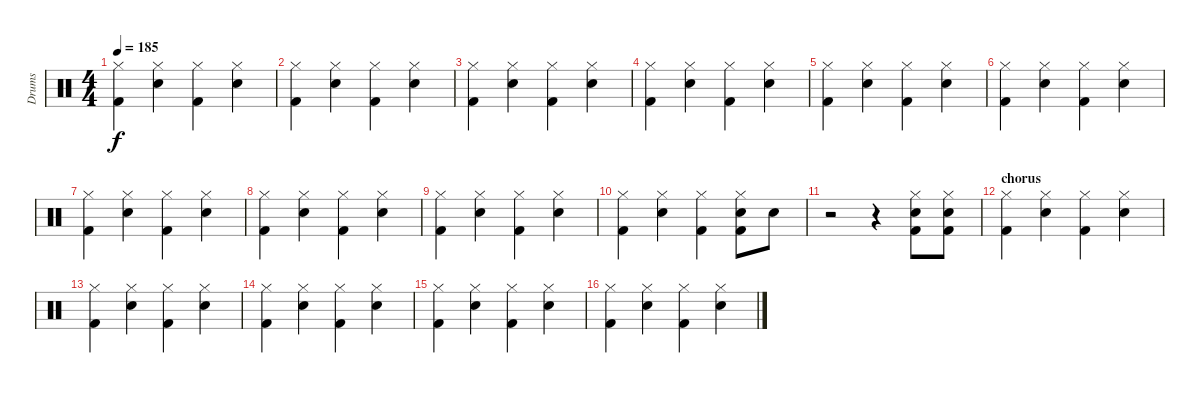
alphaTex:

\track ("Drums" "Drums") {instrument percussion}
\staff {score}
\articulation defaults
\ts (4 4)
\tempo 185
\clef neutral
\ks c
("Hi-Hat (closed)" "Kick (hit) 2").4{dy f} ("Hi-Hat (closed)" "Snare (hit) 2").4 ("Hi-Hat (closed)" "Kick (hit) 2").4 ("Hi-Hat (closed)" "Snare (hit) 2").4 |
("Hi-Hat (closed)" "Kick (hit) 2").4 ("Hi-Hat (closed)" "Snare (hit) 2").4 ("Hi-Hat (closed)" "Kick (hit) 2").4 ("Hi-Hat (closed)" "Snare (hit) 2").4 |
("Hi-Hat (closed)" "Kick (hit) 2").4 ("Hi-Hat (closed)" "Snare (hit) 2").4 ("Hi-Hat (closed)" "Kick (hit) 2").4 ("Hi-Hat (closed)" "Snare (hit) 2").4 |
("Hi-Hat (closed)" "Kick (hit) 2").4 ("Hi-Hat (closed)" "Snare (hit) 2").4 ("Hi-Hat (closed)" "Kick (hit) 2").4 ("Hi-Hat (closed)" "Snare (hit) 2").4 |
("Hi-Hat (closed)" "Kick (hit) 2").4 ("Hi-Hat (closed)" "Snare (hit) 2").4 ("Hi-Hat (closed)" "Kick (hit) 2").4 ("Hi-Hat (closed)" "Snare (hit) 2").4 |
("Hi-Hat (closed)" "Kick (hit) 2").4 ("Hi-Hat (closed)" "Snare (hit) 2").4 ("Hi-Hat (closed)" "Kick (hit) 2").4 ("Hi-Hat (closed)" "Snare (hit) 2").4 |
("Hi-Hat (closed)" "Kick (hit) 2").4 ("Hi-Hat (closed)" "Snare (hit) 2").4 ("Hi-Hat (closed)" "Kick (hit) 2").4 ("Hi-Hat (closed)" "Snare (hit) 2").4 |
("Hi-Hat (closed)" "Kick (hit) 2").4 ("Hi-Hat (closed)" "Snare (hit) 2").4 ("Hi-Hat (closed)" "Kick (hit) 2").4 ("Hi-Hat (closed)" "Snare (hit) 2").4 |
("Hi-Hat (closed)" "Kick (hit) 2").4 ("Hi-Hat (closed)" "Snare (hit) 2").4 ("Hi-Hat (closed)" "Kick (hit) 2").4 ("Hi-Hat (closed)" "Snare (hit) 2").4 |
("Hi-Hat (closed)" "Kick (hit) 2").4 ("Hi-Hat (closed)" "Snare (hit) 2").4 ("Hi-Hat (closed)" "Kick (hit) 2").4 ("Hi-Hat (closed)" "Snare (hit) 2" "Kick (hit) 2").8 "Snare (hit) 2".8 |
r.2 r.4 ("Hi-Hat (closed)" "Snare (hit) 2" "Kick (hit) 2").8 ("Hi-Hat (closed)" "Snare (hit) 2" "Kick (hit) 2").8 |
\section ("" "chorus")
("Hi-Hat (closed)" "Kick (hit) 2").4 ("Hi-Hat (closed)" "Snare (hit) 2").4 ("Hi-Hat (closed)" "Kick (hit) 2").4 ("Hi-Hat (closed)" "Snare (hit) 2").4 |
("Hi-Hat (closed)" "Kick (hit) 2").4 ("Hi-Hat (closed)" "Snare (hit) 2").4 ("Hi-Hat (closed)" "Kick (hit) 2").4 ("Hi-Hat (closed)" "Snare (hit) 2").4 |
("Hi-Hat (closed)" "Kick (hit) 2").4 ("Hi-Hat (closed)" "Snare (hit) 2").4 ("Hi-Hat (closed)" "Kick (hit) 2").4 ("Hi-Hat (closed)" "Snare (hit) 2").4 |
("Hi-Hat (closed)" "Kick (hit) 2").4 ("Hi-Hat (closed)" "Snare (hit) 2").4 ("Hi-Hat (closed)" "Kick (hit) 2").4 ("Hi-Hat (closed)" "Snare (hit) 2").4 |
("Hi-Hat (closed)" "Kick (hit) 2").4 ("Hi-Hat (closed)" "Snare (hit) 2").4 ("Hi-Hat (closed)" "Kick (hit) 2").4 ("Hi-Hat (closed)" "Snare (hit) 2").4
